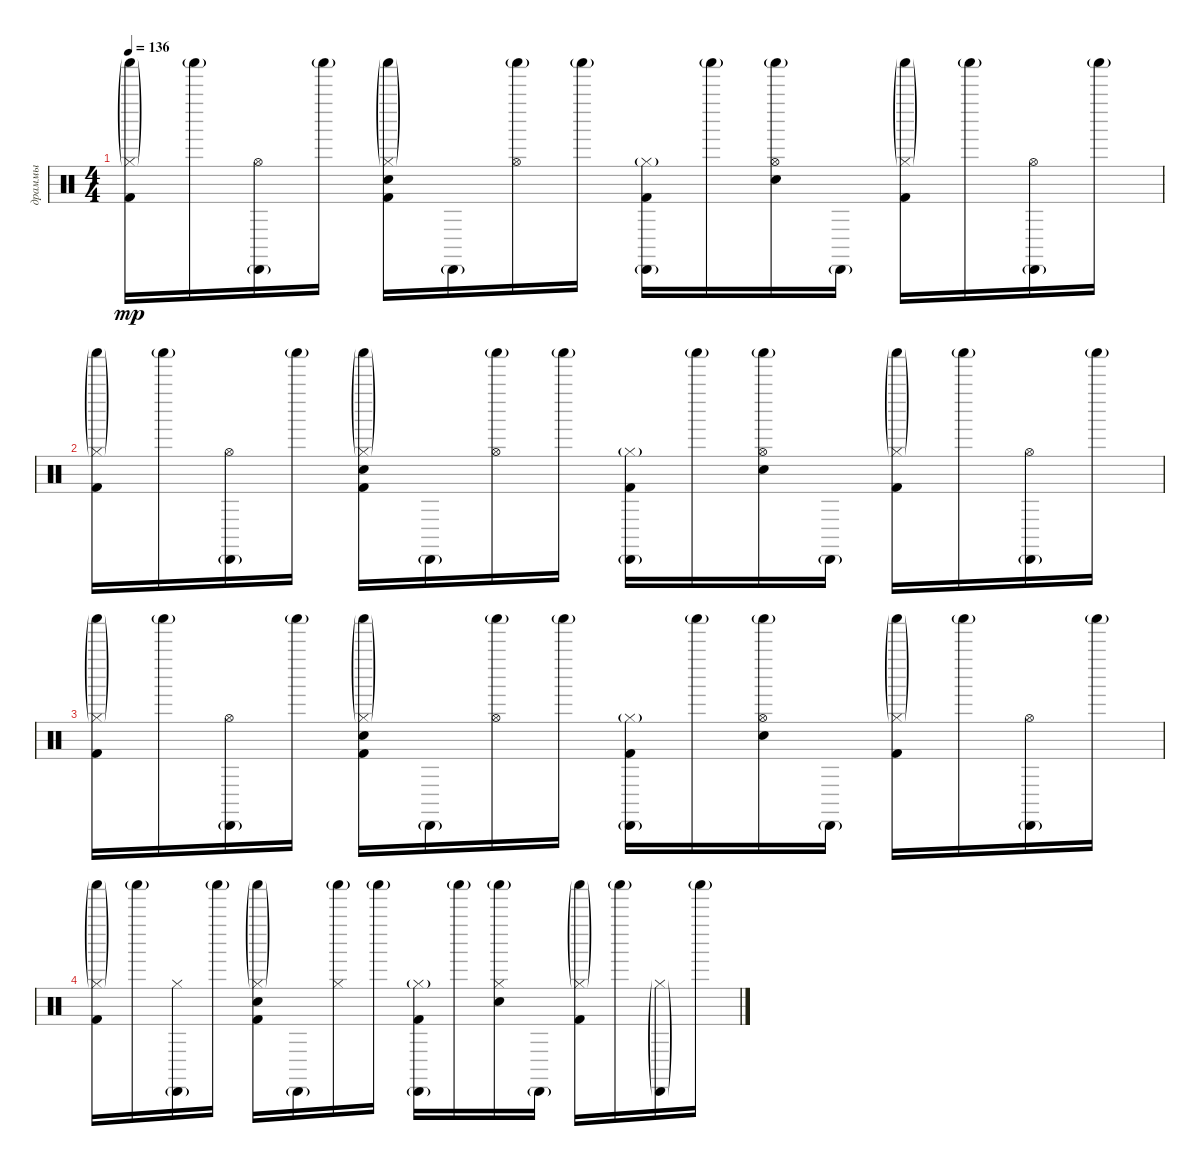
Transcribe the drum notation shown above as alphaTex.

\track ("драммы" "драммы") {instrument percussion}
\staff {score}
\articulation defaults
\ts (4 4)
\tempo 136
\clef neutral
\ks c
("Shaker (hit)"{g} "Kick (hit) 2" "Hi-Hat (closed)"{g}).16{dy mp} "Shaker (hit)"{g}.16 ("Cabasa (hit)"{g} "Hi-Hat (open)").16 "Shaker (hit)"{g}.16 ("Shaker (hit)"{g} "Snare (hit) 2" "Kick (hit) 2" "Hi-Hat (closed)"{g}).16 "Cabasa (hit)"{g}.16 ("Shaker (hit)"{g} "Hi-Hat (open)").16 "Shaker (hit)"{g}.16 ("Cabasa (hit)"{g} "Kick (hit) 2" "Hi-Hat (closed)"{g}).16 "Shaker (hit)"{g}.16 ("Shaker (hit)"{g} "Snare (hit) 2" "Hi-Hat (open)").16 "Cabasa (hit)"{g}.16 ("Shaker (hit)"{g} "Kick (hit) 2" "Hi-Hat (closed)"{g}).16 "Shaker (hit)"{g}.16 ("Cabasa (hit)"{g} "Hi-Hat (open)").16 "Shaker (hit)"{g}.16 |
("Shaker (hit)"{g} "Kick (hit) 2" "Hi-Hat (closed)"{g}).16 "Shaker (hit)"{g}.16 ("Cabasa (hit)"{g} "Hi-Hat (open)").16 "Shaker (hit)"{g}.16 ("Shaker (hit)"{g} "Snare (hit) 2" "Kick (hit) 2" "Hi-Hat (closed)"{g}).16 "Cabasa (hit)"{g}.16 ("Shaker (hit)"{g} "Hi-Hat (open)").16 "Shaker (hit)"{g}.16 ("Cabasa (hit)"{g} "Kick (hit) 2" "Hi-Hat (closed)"{g}).16 "Shaker (hit)"{g}.16 ("Shaker (hit)"{g} "Snare (hit) 2" "Hi-Hat (open)").16 "Cabasa (hit)"{g}.16 ("Shaker (hit)"{g} "Kick (hit) 2" "Hi-Hat (closed)"{g}).16 "Shaker (hit)"{g}.16 ("Cabasa (hit)"{g} "Hi-Hat (open)").16 "Shaker (hit)"{g}.16 |
("Shaker (hit)"{g} "Kick (hit) 2" "Hi-Hat (closed)"{g}).16 "Shaker (hit)"{g}.16 ("Cabasa (hit)"{g} "Hi-Hat (open)").16 "Shaker (hit)"{g}.16 ("Shaker (hit)"{g} "Snare (hit) 2" "Kick (hit) 2" "Hi-Hat (closed)"{g}).16 "Cabasa (hit)"{g}.16 ("Shaker (hit)"{g} "Hi-Hat (open)").16 "Shaker (hit)"{g}.16 ("Cabasa (hit)"{g} "Kick (hit) 2" "Hi-Hat (closed)"{g}).16 "Shaker (hit)"{g}.16 ("Shaker (hit)"{g} "Snare (hit) 2" "Hi-Hat (open)").16 "Cabasa (hit)"{g}.16 ("Shaker (hit)"{g} "Kick (hit) 2" "Hi-Hat (closed)"{g}).16 "Shaker (hit)"{g}.16 ("Cabasa (hit)"{g} "Hi-Hat (open)").16 "Shaker (hit)"{g}.16 |
("Shaker (hit)"{g} "Kick (hit) 2" "Hi-Hat (closed)"{g}).16 "Shaker (hit)"{g}.16 ("Cabasa (hit)"{g} "Hi-Hat (closed)").16 "Shaker (hit)"{g}.16 ("Shaker (hit)"{g} "Snare (hit) 2" "Kick (hit) 2" "Hi-Hat (closed)"{g}).16 "Cabasa (hit)"{g}.16 ("Shaker (hit)"{g} "Hi-Hat (closed)").16 "Shaker (hit)"{g}.16 ("Cabasa (hit)"{g} "Kick (hit) 2" "Hi-Hat (closed)"{g}).16 "Shaker (hit)"{g}.16 ("Shaker (hit)"{g} "Snare (hit) 2" "Hi-Hat (closed)").16 "Cabasa (hit)"{g}.16 ("Shaker (hit)"{g} "Kick (hit) 2" "Hi-Hat (closed)"{g}).16 "Shaker (hit)"{g}.16 ("Cabasa (hit)"{g} "Hi-Hat (closed)"{g}).16 "Shaker (hit)"{g}.16
